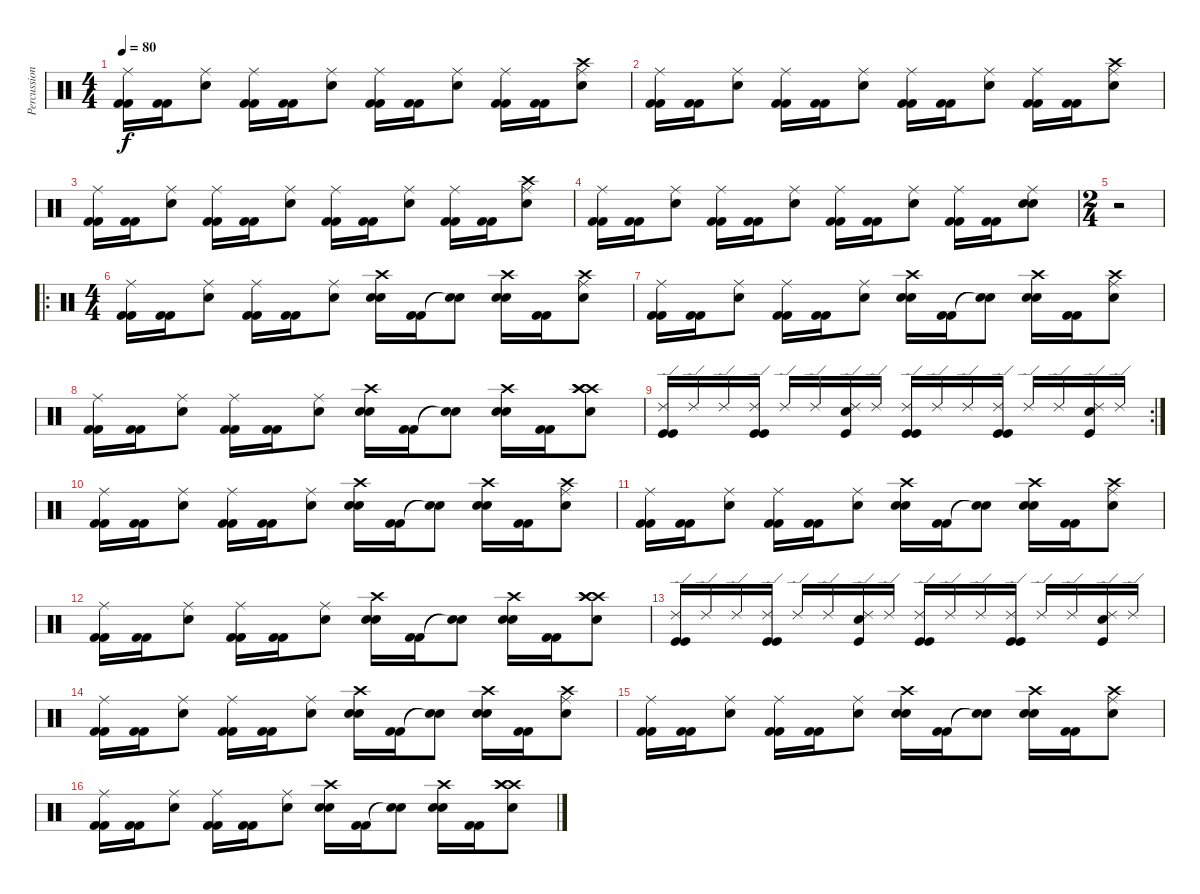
\track ("Percussion" "Percussion") {instrument percussion}
\staff {score}
\articulation defaults
\ts (4 4)
\tempo 80
\clef neutral
\ks c
("Kick (hit) 2" "Kick (hit) 2" "Ride (middle)").16{dy f} ("Kick (hit) 2" "Kick (hit) 2").16 ("Snare (hit) 2" "Ride (middle)").8 ("Kick (hit) 2" "Kick (hit) 2" "Ride (middle)").16 ("Kick (hit) 2" "Kick (hit) 2").16 ("Snare (hit) 2" "Ride (middle)").8 ("Kick (hit) 2" "Kick (hit) 2" "Ride (middle)").16 ("Kick (hit) 2" "Kick (hit) 2").16 ("Snare (hit) 2" "Ride (middle)").8 ("Kick (hit) 2" "Kick (hit) 2" "Ride (middle)").16 ("Kick (hit) 2" "Kick (hit) 2").16 ("Snare (hit) 2" "Crash high (hit)" "Ride (middle)").8 |
("Kick (hit) 2" "Kick (hit) 2" "Ride (middle)").16 ("Kick (hit) 2" "Kick (hit) 2").16 ("Snare (hit) 2" "Ride (middle)").8 ("Kick (hit) 2" "Kick (hit) 2" "Ride (middle)").16 ("Kick (hit) 2" "Kick (hit) 2").16 ("Snare (hit) 2" "Ride (middle)").8 ("Kick (hit) 2" "Kick (hit) 2" "Ride (middle)").16 ("Kick (hit) 2" "Kick (hit) 2").16 ("Snare (hit) 2" "Ride (middle)").8 ("Kick (hit) 2" "Kick (hit) 2" "Ride (middle)").16 ("Kick (hit) 2" "Kick (hit) 2").16 ("Snare (hit) 2" "Crash high (hit)" "Ride (middle)").8 |
("Kick (hit) 2" "Kick (hit) 2" "Ride (middle)").16 ("Kick (hit) 2" "Kick (hit) 2").16 ("Snare (hit) 2" "Ride (middle)").8 ("Kick (hit) 2" "Kick (hit) 2" "Ride (middle)").16 ("Kick (hit) 2" "Kick (hit) 2").16 ("Snare (hit) 2" "Ride (middle)").8 ("Kick (hit) 2" "Kick (hit) 2" "Ride (middle)").16 ("Kick (hit) 2" "Kick (hit) 2").16 ("Snare (hit) 2" "Ride (middle)").8 ("Kick (hit) 2" "Kick (hit) 2" "Ride (middle)").16 ("Kick (hit) 2" "Kick (hit) 2").16 ("Snare (hit) 2" "Crash high (hit)" "Ride (middle)").8 |
("Kick (hit) 2" "Kick (hit) 2" "Ride (middle)").16 ("Kick (hit) 2" "Kick (hit) 2").16 ("Snare (hit) 2" "Ride (middle)").8 ("Kick (hit) 2" "Kick (hit) 2" "Ride (middle)").16 ("Kick (hit) 2" "Kick (hit) 2").16 ("Snare (hit) 2" "Ride (middle)").8 ("Kick (hit) 2" "Kick (hit) 2" "Ride (middle)").16 ("Kick (hit) 2" "Kick (hit) 2").16 ("Snare (hit) 2" "Ride (middle)").8 ("Kick (hit) 2" "Kick (hit) 2" "Ride (middle)").16 ("Kick (hit) 2" "Kick (hit) 2").16 ("Snare (hit) 2" "Electric Snare (hit)" "Ride (middle)").8 |
\ts (2 4)
r.2 |
\ro
\ts (4 4)
("Kick (hit) 2" "Kick (hit) 2" "Ride (middle)").16 ("Kick (hit) 2" "Kick (hit) 2").16 ("Snare (hit) 2" "Ride (middle)").8 ("Kick (hit) 2" "Kick (hit) 2" "Ride (middle)").16 ("Kick (hit) 2" "Kick (hit) 2").16 ("Snare (hit) 2" "Ride (middle)").8 ("Snare (hit) 2" "Snare (hit) 2" "Crash high (hit)").16 ("Kick (hit) 2" "Kick (hit) 2").16 ("Snare (hit)"{t} "Snare (hit)"{t}).8 ("Snare (hit) 2" "Snare (hit) 2" "Crash high (hit)").16 ("Kick (hit) 2" "Kick (hit) 2").16 ("Snare (hit) 2" "Crash high (hit)" "Ride (middle)").8 |
("Kick (hit) 2" "Kick (hit) 2" "Ride (middle)").16 ("Kick (hit) 2" "Kick (hit) 2").16 ("Snare (hit) 2" "Ride (middle)").8 ("Kick (hit) 2" "Kick (hit) 2" "Ride (middle)").16 ("Kick (hit) 2" "Kick (hit) 2").16 ("Snare (hit) 2" "Ride (middle)").8 ("Snare (hit) 2" "Snare (hit) 2" "Crash high (hit)").16 ("Kick (hit) 2" "Kick (hit) 2").16 ("Snare (hit)"{t} "Snare (hit)"{t}).8 ("Snare (hit) 2" "Snare (hit) 2" "Crash high (hit)").16 ("Kick (hit) 2" "Kick (hit) 2").16 ("Snare (hit) 2" "Crash high (hit)" "Ride (middle)").8 |
("Kick (hit) 2" "Kick (hit) 2" "Ride (middle)").16 ("Kick (hit) 2" "Kick (hit) 2").16 ("Snare (hit) 2" "Ride (middle)").8 ("Kick (hit) 2" "Kick (hit) 2" "Ride (middle)").16 ("Kick (hit) 2" "Kick (hit) 2").16 ("Snare (hit) 2" "Ride (middle)").8 ("Snare (hit) 2" "Snare (hit) 2" "Crash high (hit)").16 ("Kick (hit) 2" "Kick (hit) 2").16 ("Snare (hit)"{t} "Snare (hit)"{t}).8 ("Snare (hit) 2" "Snare (hit) 2" "Crash high (hit)").16 ("Kick (hit) 2" "Kick (hit) 2").16 ("Crash high (hit)" "Crash high (hit)" "Snare (hit) 2" "Crash high (hit)").8 |
\rc 2
("Ride (edge) 2" "Kick (hit)" "Kick (hit)").16 "Ride (edge) 2".16 "Ride (edge) 2".16 ("Ride (edge) 2" "Kick (hit)" "Kick (hit)").16 "Ride (edge) 2".16 "Ride (edge) 2".16 ("Ride (edge) 2" "Electric Snare (hit)" "Kick (hit)").16 "Ride (edge) 2".16 ("Ride (edge) 2" "Kick (hit)" "Kick (hit)").16 "Ride (edge) 2".16 "Ride (edge) 2".16 ("Ride (edge) 2" "Kick (hit)" "Kick (hit)").16 "Ride (edge) 2".16 "Ride (edge) 2".16 ("Ride (edge) 2" "Electric Snare (hit)" "Kick (hit)").16 "Ride (edge) 2".16 |
("Kick (hit) 2" "Kick (hit) 2" "Ride (middle)").16 ("Kick (hit) 2" "Kick (hit) 2").16 ("Snare (hit) 2" "Ride (middle)").8 ("Kick (hit) 2" "Kick (hit) 2" "Ride (middle)").16 ("Kick (hit) 2" "Kick (hit) 2").16 ("Snare (hit) 2" "Ride (middle)").8 ("Snare (hit) 2" "Snare (hit) 2" "Crash high (hit)").16 ("Kick (hit) 2" "Kick (hit) 2").16 ("Snare (hit)"{t} "Snare (hit)"{t}).8 ("Snare (hit) 2" "Snare (hit) 2" "Crash high (hit)").16 ("Kick (hit) 2" "Kick (hit) 2").16 ("Snare (hit) 2" "Crash high (hit)" "Ride (middle)").8 |
("Kick (hit) 2" "Kick (hit) 2" "Ride (middle)").16 ("Kick (hit) 2" "Kick (hit) 2").16 ("Snare (hit) 2" "Ride (middle)").8 ("Kick (hit) 2" "Kick (hit) 2" "Ride (middle)").16 ("Kick (hit) 2" "Kick (hit) 2").16 ("Snare (hit) 2" "Ride (middle)").8 ("Snare (hit) 2" "Snare (hit) 2" "Crash high (hit)").16 ("Kick (hit) 2" "Kick (hit) 2").16 ("Snare (hit)"{t} "Snare (hit)"{t}).8 ("Snare (hit) 2" "Snare (hit) 2" "Crash high (hit)").16 ("Kick (hit) 2" "Kick (hit) 2").16 ("Snare (hit) 2" "Crash high (hit)" "Ride (middle)").8 |
("Kick (hit) 2" "Kick (hit) 2" "Ride (middle)").16 ("Kick (hit) 2" "Kick (hit) 2").16 ("Snare (hit) 2" "Ride (middle)").8 ("Kick (hit) 2" "Kick (hit) 2" "Ride (middle)").16 ("Kick (hit) 2" "Kick (hit) 2").16 ("Snare (hit) 2" "Ride (middle)").8 ("Snare (hit) 2" "Snare (hit) 2" "Crash high (hit)").16 ("Kick (hit) 2" "Kick (hit) 2").16 ("Snare (hit)"{t} "Snare (hit)"{t}).8 ("Snare (hit) 2" "Snare (hit) 2" "Crash high (hit)").16 ("Kick (hit) 2" "Kick (hit) 2").16 ("Crash high (hit)" "Crash high (hit)" "Snare (hit) 2" "Crash high (hit)").8 |
("Ride (edge) 2" "Kick (hit)" "Kick (hit)").16 "Ride (edge) 2".16 "Ride (edge) 2".16 ("Ride (edge) 2" "Kick (hit)" "Kick (hit)").16 "Ride (edge) 2".16 "Ride (edge) 2".16 ("Ride (edge) 2" "Electric Snare (hit)" "Kick (hit)").16 "Ride (edge) 2".16 ("Ride (edge) 2" "Kick (hit)" "Kick (hit)").16 "Ride (edge) 2".16 "Ride (edge) 2".16 ("Ride (edge) 2" "Kick (hit)" "Kick (hit)").16 "Ride (edge) 2".16 "Ride (edge) 2".16 ("Ride (edge) 2" "Electric Snare (hit)" "Kick (hit)").16 "Ride (edge) 2".16 |
("Kick (hit) 2" "Kick (hit) 2" "Ride (middle)").16 ("Kick (hit) 2" "Kick (hit) 2").16 ("Snare (hit) 2" "Ride (middle)").8 ("Kick (hit) 2" "Kick (hit) 2" "Ride (middle)").16 ("Kick (hit) 2" "Kick (hit) 2").16 ("Snare (hit) 2" "Ride (middle)").8 ("Snare (hit) 2" "Snare (hit) 2" "Crash high (hit)").16 ("Kick (hit) 2" "Kick (hit) 2").16 ("Snare (hit)"{t} "Snare (hit)"{t}).8 ("Snare (hit) 2" "Snare (hit) 2" "Crash high (hit)").16 ("Kick (hit) 2" "Kick (hit) 2").16 ("Snare (hit) 2" "Crash high (hit)" "Ride (middle)").8 |
("Kick (hit) 2" "Kick (hit) 2" "Ride (middle)").16 ("Kick (hit) 2" "Kick (hit) 2").16 ("Snare (hit) 2" "Ride (middle)").8 ("Kick (hit) 2" "Kick (hit) 2" "Ride (middle)").16 ("Kick (hit) 2" "Kick (hit) 2").16 ("Snare (hit) 2" "Ride (middle)").8 ("Snare (hit) 2" "Snare (hit) 2" "Crash high (hit)").16 ("Kick (hit) 2" "Kick (hit) 2").16 ("Snare (hit)"{t} "Snare (hit)"{t}).8 ("Snare (hit) 2" "Snare (hit) 2" "Crash high (hit)").16 ("Kick (hit) 2" "Kick (hit) 2").16 ("Snare (hit) 2" "Crash high (hit)" "Ride (middle)").8 |
("Kick (hit) 2" "Kick (hit) 2" "Ride (middle)").16 ("Kick (hit) 2" "Kick (hit) 2").16 ("Snare (hit) 2" "Ride (middle)").8 ("Kick (hit) 2" "Kick (hit) 2" "Ride (middle)").16 ("Kick (hit) 2" "Kick (hit) 2").16 ("Snare (hit) 2" "Ride (middle)").8 ("Snare (hit) 2" "Snare (hit) 2" "Crash high (hit)").16 ("Kick (hit) 2" "Kick (hit) 2").16 ("Snare (hit)"{t} "Snare (hit)"{t}).8 ("Snare (hit) 2" "Snare (hit) 2" "Crash high (hit)").16 ("Kick (hit) 2" "Kick (hit) 2").16 ("Crash high (hit)" "Crash high (hit)" "Snare (hit) 2" "Crash high (hit)").8
